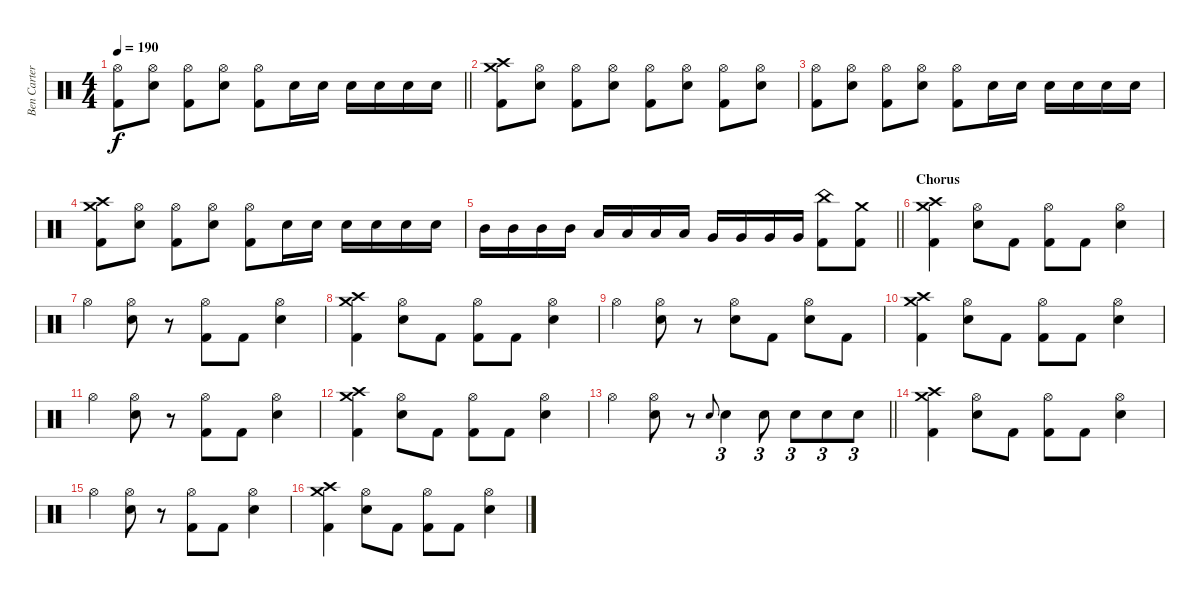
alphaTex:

\track ("Ben Carter" "Ben Carter") {instrument percussion}
\staff {score}
\articulation defaults
\ts (4 4)
\tempo 190
\clef neutral
\barLineRight lightlight
\ks c
("Hi-Hat (open)" "Kick (hit) 2").8{dy f} ("Hi-Hat (open)" "Snare (hit) 2").8 ("Hi-Hat (open)" "Kick (hit) 2").8 ("Hi-Hat (open)" "Snare (hit) 2").8 ("Hi-Hat (open)" "Kick (hit) 2").8 "Snare (hit) 2".16 "Snare (hit) 2".16 "Snare (hit) 2".16 "Snare (hit) 2".16 "Snare (hit) 2".16 "Snare (hit) 2".16 |
("Crash medium (hit)" "Crash high (hit)" "Kick (hit) 2").8 ("Hi-Hat (open)" "Snare (hit) 2").8 ("Hi-Hat (open)" "Kick (hit) 2").8 ("Hi-Hat (open)" "Snare (hit) 2").8 ("Hi-Hat (open)" "Kick (hit) 2").8 ("Hi-Hat (open)" "Snare (hit) 2").8 ("Hi-Hat (open)" "Kick (hit) 2").8 ("Hi-Hat (open)" "Snare (hit) 2").8 |
("Hi-Hat (open)" "Kick (hit) 2").8 ("Hi-Hat (open)" "Snare (hit) 2").8 ("Hi-Hat (open)" "Kick (hit) 2").8 ("Hi-Hat (open)" "Snare (hit) 2").8 ("Hi-Hat (open)" "Kick (hit) 2").8 "Snare (hit) 2".16 "Snare (hit) 2".16 "Snare (hit) 2".16 "Snare (hit) 2".16 "Snare (hit) 2".16 "Snare (hit) 2".16 |
("Crash medium (hit)" "Crash high (hit)" "Kick (hit) 2").8 ("Hi-Hat (open)" "Snare (hit) 2").8 ("Hi-Hat (open)" "Kick (hit) 2").8 ("Hi-Hat (open)" "Snare (hit) 2").8 ("Hi-Hat (open)" "Kick (hit) 2").8 "Snare (hit) 2".16 "Snare (hit) 2".16 "Snare (hit) 2".16 "Snare (hit) 2".16 "Snare (hit) 2".16 "Snare (hit) 2".16 |
\barLineRight lightlight "Mid Tom (hit)".16 "Mid Tom (hit)".16 "Mid Tom (hit)".16 "Mid Tom (hit)".16 "Low Tom (hit)".16 "Low Tom (hit)".16 "Low Tom (hit)".16 "Low Tom (hit)".16 "Very Low Tom (hit)".16 "Very Low Tom (hit)".16 "Very Low Tom (hit)".16 "Very Low Tom (hit)".16
("China (hit)" "Kick (hit) 2").8 ("Crash medium (hit)" "Kick (hit) 2").8 |
\section ("" "Chorus")
("Crash medium (hit)" "Crash high (hit)" "Kick (hit) 2").4 ("Hi-Hat (open)" "Snare (hit) 2").8 "Kick (hit) 2".8 ("Hi-Hat (open)" "Kick (hit) 2").8 "Kick (hit) 2".8 ("Hi-Hat (open)" "Snare (hit) 2").4 |
"Hi-Hat (open)".4 ("Hi-Hat (open)" "Snare (hit) 2").8 r.8 ("Hi-Hat (open)" "Kick (hit) 2").8 "Kick (hit) 2".8 ("Hi-Hat (open)" "Snare (hit) 2").4 |
("Crash medium (hit)" "Crash high (hit)" "Kick (hit) 2").4 ("Hi-Hat (open)" "Snare (hit) 2").8 "Kick (hit) 2".8 ("Hi-Hat (open)" "Kick (hit) 2").8 "Kick (hit) 2".8 ("Hi-Hat (open)" "Snare (hit) 2").4 |
"Hi-Hat (open)".4 ("Hi-Hat (open)" "Snare (hit) 2").8 r.8 ("Hi-Hat (open)" "Snare (hit) 2").8 "Kick (hit) 2".8 ("Hi-Hat (open)" "Snare (hit) 2").8 "Kick (hit) 2".8 |
("Crash medium (hit)" "Crash high (hit)" "Kick (hit) 2").4 ("Hi-Hat (open)" "Snare (hit) 2").8 "Kick (hit) 2".8 ("Hi-Hat (open)" "Kick (hit) 2").8 "Kick (hit) 2".8 ("Hi-Hat (open)" "Snare (hit) 2").4 |
"Hi-Hat (open)".4 ("Hi-Hat (open)" "Snare (hit) 2").8 r.8 ("Hi-Hat (open)" "Kick (hit) 2").8 "Kick (hit) 2".8 ("Hi-Hat (open)" "Snare (hit) 2").4 |
("Crash medium (hit)" "Crash high (hit)" "Kick (hit) 2").4 ("Hi-Hat (open)" "Snare (hit) 2").8 "Kick (hit) 2".8 ("Hi-Hat (open)" "Kick (hit) 2").8 "Kick (hit) 2".8 ("Hi-Hat (open)" "Snare (hit) 2").4 |
\barLineRight lightlight "Hi-Hat (open)".4
("Hi-Hat (open)" "Snare (hit) 2").8 r.8 "Snare (hit) 2".8{gr onbeat} "Snare (hit) 2".4{tu (3 2)} "Snare (hit) 2".8{tu (3 2)} "Snare (hit) 2".8{tu (3 2)} "Snare (hit) 2".8{tu (3 2)} "Snare (hit) 2".8{tu (3 2)} |
("Crash medium (hit)" "Crash high (hit)" "Kick (hit) 2").4 ("Hi-Hat (open)" "Snare (hit) 2").8 "Kick (hit) 2".8 ("Hi-Hat (open)" "Kick (hit) 2").8 "Kick (hit) 2".8 ("Hi-Hat (open)" "Snare (hit) 2").4 |
"Hi-Hat (open)".4 ("Hi-Hat (open)" "Snare (hit) 2").8 r.8 ("Hi-Hat (open)" "Kick (hit) 2").8 "Kick (hit) 2".8 ("Hi-Hat (open)" "Snare (hit) 2").4 |
("Crash medium (hit)" "Crash high (hit)" "Kick (hit) 2").4 ("Hi-Hat (open)" "Snare (hit) 2").8 "Kick (hit) 2".8 ("Hi-Hat (open)" "Kick (hit) 2").8 "Kick (hit) 2".8 ("Hi-Hat (open)" "Snare (hit) 2").4
